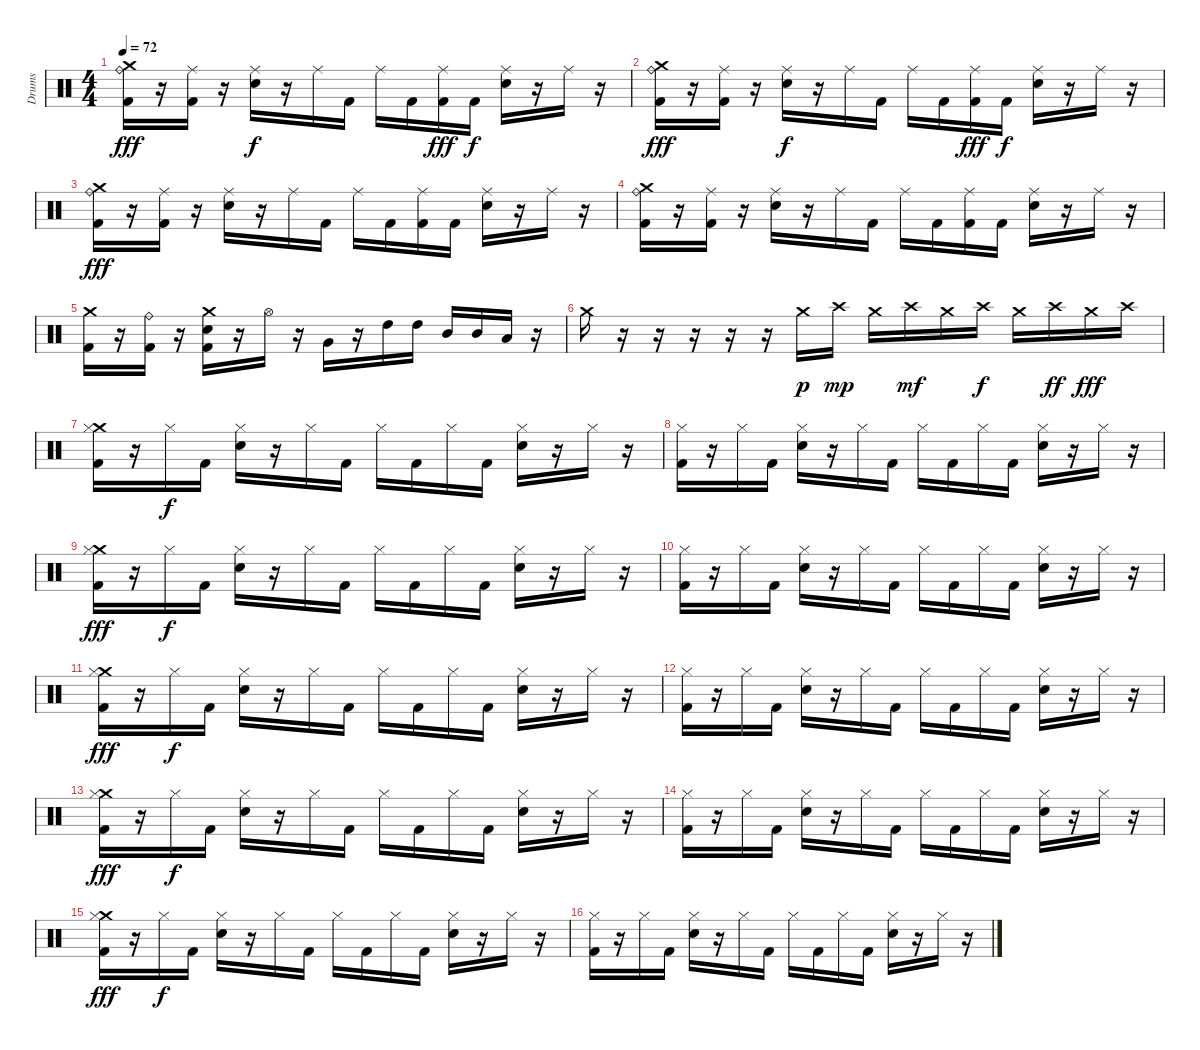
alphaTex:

\track ("Drums" "Drums") {instrument percussion}
\staff {score}
\articulation defaults
\ts (4 4)
\tempo 72
\clef neutral
\ks c
("Crash medium (hit)" "Ride (bell)" "Kick (hit) 2").16{dy fff} r.16 ("Ride (middle)" "Kick (hit) 2").16 r.16 ("Ride (middle)" "Snare (hit) 2").16{dy f} r.16 "Ride (middle)".16 "Kick (hit) 2".16 "Ride (middle)".16 "Kick (hit) 2".16 ("Ride (middle)" "Kick (hit) 2").16{dy fff} "Kick (hit) 2".16{dy f} ("Ride (middle)" "Snare (hit) 2").16 r.16 "Ride (middle)".16 r.16 |
("Crash medium (hit)" "Ride (bell)" "Kick (hit) 2").16{dy fff} r.16 ("Ride (middle)" "Kick (hit) 2").16 r.16 ("Ride (middle)" "Snare (hit) 2").16{dy f} r.16 "Ride (middle)".16 "Kick (hit) 2".16 "Ride (middle)".16 "Kick (hit) 2".16 ("Ride (middle)" "Kick (hit) 2").16{dy fff} "Kick (hit) 2".16{dy f} ("Ride (middle)" "Snare (hit) 2").16 r.16 "Ride (middle)".16 r.16 |
("Crash medium (hit)" "Ride (bell)" "Kick (hit) 2").16{dy fff} r.16 ("Ride (middle)" "Kick (hit) 2").16 r.16 ("Ride (middle)" "Snare (hit) 2").16 r.16 "Ride (middle)".16 "Kick (hit) 2".16 "Ride (middle)".16 "Kick (hit) 2".16 ("Ride (middle)" "Kick (hit) 2").16 "Kick (hit) 2".16 ("Ride (middle)" "Snare (hit) 2").16 r.16 "Ride (middle)".16 r.16 |
("Crash medium (hit)" "Ride (bell)" "Kick (hit) 2").16 r.16 ("Ride (middle)" "Kick (hit) 2").16 r.16 ("Ride (middle)" "Snare (hit) 2").16 r.16 "Ride (middle)".16 "Kick (hit) 2".16 "Ride (middle)".16 "Kick (hit) 2".16 ("Ride (middle)" "Kick (hit) 2").16 "Kick (hit) 2".16 ("Ride (middle)" "Snare (hit) 2").16 r.16 "Ride (middle)".16 r.16 |
("Crash medium (hit)" "Kick (hit) 2").16 r.16 ("Ride (bell)" "Kick (hit) 2").16 r.16 ("Crash medium (hit)" "Snare (hit) 2" "Kick (hit) 2").16 r.16 "Hi-Hat (open)".16 r.16 "Very Low Tom (hit)".16 r.16 "High Tom (hit)".16 "High Tom (hit)".16 "Mid Tom (hit)".16 "Mid Tom (hit)".16 "Low Tom (hit)".16 r.16 |
"Crash medium (hit)".16 r.16 r.16 r.16 r.16 r.16 "Crash medium (hit)".16{dy p} "Crash high (hit)".16{dy mp} "Crash medium (hit)".16 "Crash high (hit)".16{dy mf} "Crash medium (hit)".16 "Crash high (hit)".16{dy f} "Crash medium (hit)".16 "Crash high (hit)".16{dy ff} "Crash medium (hit)".16{dy fff} "Crash high (hit)".16 |
("Crash medium (hit)" "Hi-Hat (closed)" "Kick (hit) 2").16 r.16 "Hi-Hat (closed)".16{dy f} "Kick (hit) 2".16 ("Hi-Hat (closed)" "Snare (hit) 2").16 r.16 "Hi-Hat (closed)".16 "Kick (hit) 2".16 "Hi-Hat (closed)".16 "Kick (hit) 2".16 "Hi-Hat (closed)".16 "Kick (hit) 2".16 ("Hi-Hat (closed)" "Snare (hit) 2").16 r.16 "Hi-Hat (closed)".16 r.16 |
("Hi-Hat (closed)" "Kick (hit) 2").16 r.16 "Hi-Hat (closed)".16 "Kick (hit) 2".16 ("Hi-Hat (closed)" "Snare (hit) 2").16 r.16 "Hi-Hat (closed)".16 "Kick (hit) 2".16 "Hi-Hat (closed)".16 "Kick (hit) 2".16 "Hi-Hat (closed)".16 "Kick (hit) 2".16 ("Hi-Hat (closed)" "Snare (hit) 2").16 r.16 "Hi-Hat (closed)".16 r.16 |
("Crash medium (hit)" "Hi-Hat (closed)" "Kick (hit) 2").16{dy fff} r.16 "Hi-Hat (closed)".16{dy f} "Kick (hit) 2".16 ("Hi-Hat (closed)" "Snare (hit) 2").16 r.16 "Hi-Hat (closed)".16 "Kick (hit) 2".16 "Hi-Hat (closed)".16 "Kick (hit) 2".16 "Hi-Hat (closed)".16 "Kick (hit) 2".16 ("Hi-Hat (closed)" "Snare (hit) 2").16 r.16 "Hi-Hat (closed)".16 r.16 |
("Hi-Hat (closed)" "Kick (hit) 2").16 r.16 "Hi-Hat (closed)".16 "Kick (hit) 2".16 ("Hi-Hat (closed)" "Snare (hit) 2").16 r.16 "Hi-Hat (closed)".16 "Kick (hit) 2".16 "Hi-Hat (closed)".16 "Kick (hit) 2".16 "Hi-Hat (closed)".16 "Kick (hit) 2".16 ("Hi-Hat (closed)" "Snare (hit) 2").16 r.16 "Hi-Hat (closed)".16 r.16 |
("Crash medium (hit)" "Hi-Hat (closed)" "Kick (hit) 2").16{dy fff} r.16 "Hi-Hat (closed)".16{dy f} "Kick (hit) 2".16 ("Hi-Hat (closed)" "Snare (hit) 2").16 r.16 "Hi-Hat (closed)".16 "Kick (hit) 2".16 "Hi-Hat (closed)".16 "Kick (hit) 2".16 "Hi-Hat (closed)".16 "Kick (hit) 2".16 ("Hi-Hat (closed)" "Snare (hit) 2").16 r.16 "Hi-Hat (closed)".16 r.16 |
("Hi-Hat (closed)" "Kick (hit) 2").16 r.16 "Hi-Hat (closed)".16 "Kick (hit) 2".16 ("Hi-Hat (closed)" "Snare (hit) 2").16 r.16 "Hi-Hat (closed)".16 "Kick (hit) 2".16 "Hi-Hat (closed)".16 "Kick (hit) 2".16 "Hi-Hat (closed)".16 "Kick (hit) 2".16 ("Hi-Hat (closed)" "Snare (hit) 2").16 r.16 "Hi-Hat (closed)".16 r.16 |
("Crash medium (hit)" "Hi-Hat (closed)" "Kick (hit) 2").16{dy fff} r.16 "Hi-Hat (closed)".16{dy f} "Kick (hit) 2".16 ("Hi-Hat (closed)" "Snare (hit) 2").16 r.16 "Hi-Hat (closed)".16 "Kick (hit) 2".16 "Hi-Hat (closed)".16 "Kick (hit) 2".16 "Hi-Hat (closed)".16 "Kick (hit) 2".16 ("Hi-Hat (closed)" "Snare (hit) 2").16 r.16 "Hi-Hat (closed)".16 r.16 |
("Hi-Hat (closed)" "Kick (hit) 2").16 r.16 "Hi-Hat (closed)".16 "Kick (hit) 2".16 ("Hi-Hat (closed)" "Snare (hit) 2").16 r.16 "Hi-Hat (closed)".16 "Kick (hit) 2".16 "Hi-Hat (closed)".16 "Kick (hit) 2".16 "Hi-Hat (closed)".16 "Kick (hit) 2".16 ("Hi-Hat (closed)" "Snare (hit) 2").16 r.16 "Hi-Hat (closed)".16 r.16 |
("Crash medium (hit)" "Hi-Hat (closed)" "Kick (hit) 2").16{dy fff} r.16 "Hi-Hat (closed)".16{dy f} "Kick (hit) 2".16 ("Hi-Hat (closed)" "Snare (hit) 2").16 r.16 "Hi-Hat (closed)".16 "Kick (hit) 2".16 "Hi-Hat (closed)".16 "Kick (hit) 2".16 "Hi-Hat (closed)".16 "Kick (hit) 2".16 ("Hi-Hat (closed)" "Snare (hit) 2").16 r.16 "Hi-Hat (closed)".16 r.16 |
("Hi-Hat (closed)" "Kick (hit) 2").16 r.16 "Hi-Hat (closed)".16 "Kick (hit) 2".16 ("Hi-Hat (closed)" "Snare (hit) 2").16 r.16 "Hi-Hat (closed)".16 "Kick (hit) 2".16 "Hi-Hat (closed)".16 "Kick (hit) 2".16 "Hi-Hat (closed)".16 "Kick (hit) 2".16 ("Hi-Hat (closed)" "Snare (hit) 2").16 r.16 "Hi-Hat (closed)".16 r.16
